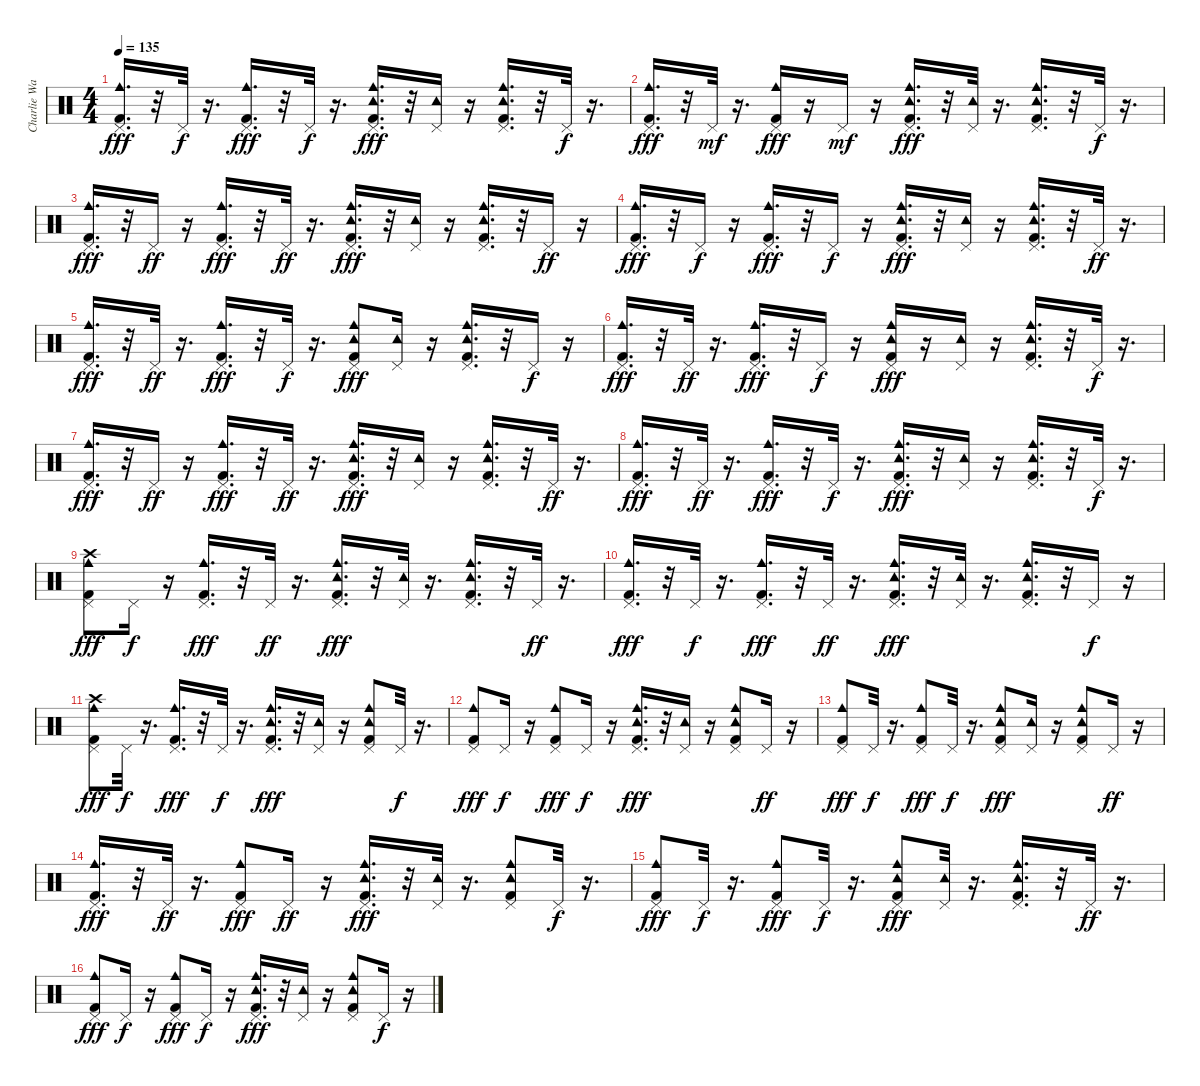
\track ("Charlie Watts - Drums" "Charlie Wa") {instrument percussion}
\staff {score}
\articulation defaults
\ts (4 4)
\tempo 135
\clef neutral
\ks c
("Kick (hit) 2" "Pedal Hi-Hat (hit)" "Cowbell medium (hit)").16{d dy fff} r.32 "Pedal Hi-Hat (hit)".32{dy f} r.16{d} ("Kick (hit) 2" "Pedal Hi-Hat (hit)" "Cowbell medium (hit)").16{d dy fff} r.32 "Pedal Hi-Hat (hit)".32{dy f} r.16{d} ("Kick (hit) 2" "Pedal Hi-Hat (hit)" "Tambourine (hit)" "Cowbell medium (hit)").16{d dy fff} r.32 ("Pedal Hi-Hat (hit)" "Tambourine (hit)").16 r.16 ("Kick (hit) 2" "Pedal Hi-Hat (hit)" "Tambourine (hit)" "Cowbell medium (hit)").16{d} r.32 "Pedal Hi-Hat (hit)".32{dy f} r.16{d} |
("Kick (hit) 2" "Pedal Hi-Hat (hit)" "Cowbell medium (hit)").16{d dy fff} r.32 "Pedal Hi-Hat (hit)".32{dy mf} r.16{d} ("Kick (hit) 2" "Pedal Hi-Hat (hit)" "Cowbell medium (hit)").16{dy fff} r.16 "Pedal Hi-Hat (hit)".16{dy mf} r.16 ("Kick (hit) 2" "Pedal Hi-Hat (hit)" "Tambourine (hit)" "Cowbell medium (hit)").16{d dy fff} r.32 ("Pedal Hi-Hat (hit)" "Tambourine (hit)").32 r.16{d} ("Kick (hit) 2" "Pedal Hi-Hat (hit)" "Tambourine (hit)" "Cowbell medium (hit)").16{d} r.32 "Pedal Hi-Hat (hit)".32{dy f} r.16{d} |
("Kick (hit) 2" "Pedal Hi-Hat (hit)" "Cowbell medium (hit)").16{d dy fff} r.32 "Pedal Hi-Hat (hit)".16{dy ff} r.16 ("Kick (hit) 2" "Pedal Hi-Hat (hit)" "Cowbell medium (hit)").16{d dy fff} r.32 "Pedal Hi-Hat (hit)".32{dy ff} r.16{d} ("Kick (hit) 2" "Pedal Hi-Hat (hit)" "Tambourine (hit)" "Cowbell medium (hit)").16{d dy fff} r.32 ("Pedal Hi-Hat (hit)" "Tambourine (hit)").16 r.16 ("Kick (hit) 2" "Pedal Hi-Hat (hit)" "Tambourine (hit)" "Cowbell medium (hit)").16{d} r.32 "Pedal Hi-Hat (hit)".16{dy ff} r.16 |
("Kick (hit) 2" "Pedal Hi-Hat (hit)" "Cowbell medium (hit)").16{d dy fff} r.32 "Pedal Hi-Hat (hit)".16{dy f} r.16 ("Kick (hit) 2" "Pedal Hi-Hat (hit)" "Cowbell medium (hit)").16{d dy fff} r.32 "Pedal Hi-Hat (hit)".16{dy f} r.16 ("Kick (hit) 2" "Pedal Hi-Hat (hit)" "Tambourine (hit)" "Cowbell medium (hit)").16{d dy fff} r.32 ("Pedal Hi-Hat (hit)" "Tambourine (hit)").16 r.16 ("Kick (hit) 2" "Pedal Hi-Hat (hit)" "Tambourine (hit)" "Cowbell medium (hit)").16{d} r.32 "Pedal Hi-Hat (hit)".32{dy ff} r.16{d} |
("Kick (hit) 2" "Pedal Hi-Hat (hit)" "Cowbell medium (hit)").16{d dy fff} r.32 "Pedal Hi-Hat (hit)".32{dy ff} r.16{d} ("Kick (hit) 2" "Pedal Hi-Hat (hit)" "Cowbell medium (hit)").16{d dy fff} r.32 "Pedal Hi-Hat (hit)".32{dy f} r.16{d} ("Kick (hit) 2" "Pedal Hi-Hat (hit)" "Tambourine (hit)" "Cowbell medium (hit)").8{dy fff} ("Pedal Hi-Hat (hit)" "Tambourine (hit)").16 r.16 ("Kick (hit) 2" "Pedal Hi-Hat (hit)" "Tambourine (hit)" "Cowbell medium (hit)").16{d} r.32 "Pedal Hi-Hat (hit)".16{dy f} r.16 |
("Kick (hit) 2" "Pedal Hi-Hat (hit)" "Cowbell medium (hit)").16{d dy fff} r.32 "Pedal Hi-Hat (hit)".32{dy ff} r.16{d} ("Kick (hit) 2" "Pedal Hi-Hat (hit)" "Cowbell medium (hit)").16{d dy fff} r.32 "Pedal Hi-Hat (hit)".16{dy f} r.16 ("Kick (hit) 2" "Pedal Hi-Hat (hit)" "Tambourine (hit)" "Cowbell medium (hit)").16{dy fff} r.16 ("Pedal Hi-Hat (hit)" "Tambourine (hit)").16 r.16 ("Kick (hit) 2" "Pedal Hi-Hat (hit)" "Tambourine (hit)" "Cowbell medium (hit)").16{d} r.32 "Pedal Hi-Hat (hit)".32{dy f} r.16{d} |
("Kick (hit) 2" "Pedal Hi-Hat (hit)" "Cowbell medium (hit)").16{d dy fff} r.32 "Pedal Hi-Hat (hit)".16{dy ff} r.16 ("Kick (hit) 2" "Pedal Hi-Hat (hit)" "Cowbell medium (hit)").16{d dy fff} r.32 "Pedal Hi-Hat (hit)".32{dy ff} r.16{d} ("Kick (hit) 2" "Pedal Hi-Hat (hit)" "Tambourine (hit)" "Cowbell medium (hit)").16{d dy fff} r.32 ("Pedal Hi-Hat (hit)" "Tambourine (hit)").16 r.16 ("Kick (hit) 2" "Pedal Hi-Hat (hit)" "Tambourine (hit)" "Cowbell medium (hit)").16{d} r.32 "Pedal Hi-Hat (hit)".32{dy ff} r.16{d} |
("Kick (hit) 2" "Pedal Hi-Hat (hit)" "Cowbell medium (hit)").16{d dy fff} r.32 "Pedal Hi-Hat (hit)".32{dy ff} r.16{d} ("Kick (hit) 2" "Pedal Hi-Hat (hit)" "Cowbell medium (hit)").16{d dy fff} r.32 "Pedal Hi-Hat (hit)".32{dy f} r.16{d} ("Kick (hit) 2" "Pedal Hi-Hat (hit)" "Tambourine (hit)" "Cowbell medium (hit)").16{d dy fff} r.32 ("Pedal Hi-Hat (hit)" "Tambourine (hit)").16 r.16 ("Kick (hit) 2" "Pedal Hi-Hat (hit)" "Tambourine (hit)" "Cowbell medium (hit)").16{d} r.32 "Pedal Hi-Hat (hit)".32{dy f} r.16{d} |
("Kick (hit) 2" "Pedal Hi-Hat (hit)" "Crash high (hit)" "Cowbell medium (hit)").8{dy fff} "Pedal Hi-Hat (hit)".16{dy f} r.16 ("Kick (hit) 2" "Pedal Hi-Hat (hit)" "Cowbell medium (hit)").16{d dy fff} r.32 "Pedal Hi-Hat (hit)".32{dy ff} r.16{d} ("Kick (hit) 2" "Pedal Hi-Hat (hit)" "Tambourine (hit)" "Cowbell medium (hit)").16{d dy fff} r.32 ("Pedal Hi-Hat (hit)" "Tambourine (hit)").32 r.16{d} ("Kick (hit) 2" "Pedal Hi-Hat (hit)" "Tambourine (hit)" "Cowbell medium (hit)").16{d} r.32 "Pedal Hi-Hat (hit)".32{dy ff} r.16{d} |
("Kick (hit) 2" "Pedal Hi-Hat (hit)" "Cowbell medium (hit)").16{d dy fff} r.32 "Pedal Hi-Hat (hit)".32{dy f} r.16{d} ("Kick (hit) 2" "Pedal Hi-Hat (hit)" "Cowbell medium (hit)").16{d dy fff} r.32 "Pedal Hi-Hat (hit)".32{dy ff} r.16{d} ("Kick (hit) 2" "Pedal Hi-Hat (hit)" "Tambourine (hit)" "Cowbell medium (hit)").16{d dy fff} r.32 ("Pedal Hi-Hat (hit)" "Tambourine (hit)").32 r.16{d} ("Kick (hit) 2" "Pedal Hi-Hat (hit)" "Tambourine (hit)" "Cowbell medium (hit)").16{d} r.32 "Pedal Hi-Hat (hit)".16{dy f} r.16 |
("Kick (hit) 2" "Pedal Hi-Hat (hit)" "Crash high (hit)" "Cowbell medium (hit)").8{dy fff} "Pedal Hi-Hat (hit)".32{dy f} r.16{d} ("Kick (hit) 2" "Pedal Hi-Hat (hit)" "Cowbell medium (hit)").16{d dy fff} r.32 "Pedal Hi-Hat (hit)".32{dy f} r.16{d} ("Kick (hit) 2" "Pedal Hi-Hat (hit)" "Tambourine (hit)" "Cowbell medium (hit)").16{d dy fff} r.32 ("Pedal Hi-Hat (hit)" "Tambourine (hit)").16 r.16 ("Kick (hit) 2" "Pedal Hi-Hat (hit)" "Tambourine (hit)" "Cowbell medium (hit)").8 "Pedal Hi-Hat (hit)".32{dy f} r.16{d} |
("Kick (hit) 2" "Pedal Hi-Hat (hit)" "Cowbell medium (hit)").8{dy fff} "Pedal Hi-Hat (hit)".16{dy f} r.16 ("Kick (hit) 2" "Pedal Hi-Hat (hit)" "Cowbell medium (hit)").8{dy fff} "Pedal Hi-Hat (hit)".16{dy f} r.16 ("Kick (hit) 2" "Pedal Hi-Hat (hit)" "Tambourine (hit)" "Cowbell medium (hit)").16{d dy fff} r.32 ("Pedal Hi-Hat (hit)" "Tambourine (hit)").16 r.16 ("Kick (hit) 2" "Pedal Hi-Hat (hit)" "Tambourine (hit)" "Cowbell medium (hit)").8 "Pedal Hi-Hat (hit)".16{dy ff} r.16 |
("Kick (hit) 2" "Pedal Hi-Hat (hit)" "Cowbell medium (hit)").8{dy fff} "Pedal Hi-Hat (hit)".32{dy f} r.16{d} ("Kick (hit) 2" "Pedal Hi-Hat (hit)" "Cowbell medium (hit)").8{dy fff} "Pedal Hi-Hat (hit)".32{dy f} r.16{d} ("Kick (hit) 2" "Pedal Hi-Hat (hit)" "Tambourine (hit)" "Cowbell medium (hit)").8{dy fff} ("Pedal Hi-Hat (hit)" "Tambourine (hit)").16 r.16 ("Kick (hit) 2" "Pedal Hi-Hat (hit)" "Tambourine (hit)" "Cowbell medium (hit)").8 "Pedal Hi-Hat (hit)".16{dy ff} r.16 |
("Kick (hit) 2" "Pedal Hi-Hat (hit)" "Cowbell medium (hit)").16{d dy fff} r.32 "Pedal Hi-Hat (hit)".32{dy ff} r.16{d} ("Kick (hit) 2" "Pedal Hi-Hat (hit)" "Cowbell medium (hit)").8{dy fff} "Pedal Hi-Hat (hit)".16{dy ff} r.16 ("Kick (hit) 2" "Pedal Hi-Hat (hit)" "Tambourine (hit)" "Cowbell medium (hit)").16{d dy fff} r.32 ("Pedal Hi-Hat (hit)" "Tambourine (hit)").32 r.16{d} ("Kick (hit) 2" "Pedal Hi-Hat (hit)" "Tambourine (hit)" "Cowbell medium (hit)").8 "Pedal Hi-Hat (hit)".32{dy f} r.16{d} |
("Kick (hit) 2" "Pedal Hi-Hat (hit)" "Cowbell medium (hit)").8{dy fff} "Pedal Hi-Hat (hit)".32{dy f} r.16{d} ("Kick (hit) 2" "Pedal Hi-Hat (hit)" "Cowbell medium (hit)").8{dy fff} "Pedal Hi-Hat (hit)".32{dy f} r.16{d} ("Kick (hit) 2" "Pedal Hi-Hat (hit)" "Tambourine (hit)" "Cowbell medium (hit)").8{dy fff} ("Pedal Hi-Hat (hit)" "Tambourine (hit)").32 r.16{d} ("Kick (hit) 2" "Pedal Hi-Hat (hit)" "Tambourine (hit)" "Cowbell medium (hit)").16{d} r.32 "Pedal Hi-Hat (hit)".32{dy ff} r.16{d} |
("Kick (hit) 2" "Pedal Hi-Hat (hit)" "Cowbell medium (hit)").8{dy fff} "Pedal Hi-Hat (hit)".16{dy f} r.16 ("Kick (hit) 2" "Pedal Hi-Hat (hit)" "Cowbell medium (hit)").8{dy fff} "Pedal Hi-Hat (hit)".16{dy f} r.16 ("Kick (hit) 2" "Pedal Hi-Hat (hit)" "Tambourine (hit)" "Cowbell medium (hit)").16{d dy fff} r.32 ("Pedal Hi-Hat (hit)" "Tambourine (hit)").16 r.16 ("Kick (hit) 2" "Pedal Hi-Hat (hit)" "Tambourine (hit)" "Cowbell medium (hit)").8 "Pedal Hi-Hat (hit)".16{dy f} r.16
